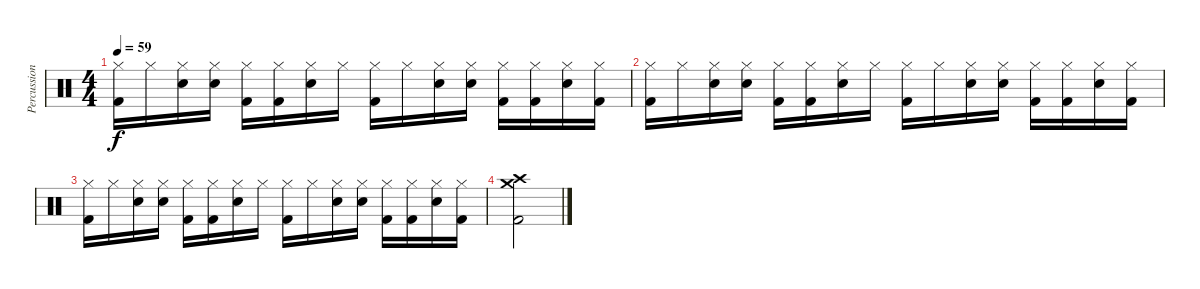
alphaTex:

\track ("Percussion 1" "Percussion") {instrument percussion}
\staff {score}
\articulation defaults
\ts (4 4)
\tempo 59
\clef neutral
\ks c
("Hi-Hat (closed)" "Kick (hit) 2").16{dy f} "Hi-Hat (closed)".16 ("Hi-Hat (closed)" "Snare (hit) 2").16 ("Hi-Hat (closed)" "Snare (hit) 2").16 ("Hi-Hat (closed)" "Kick (hit) 2").16 ("Hi-Hat (closed)" "Kick (hit) 2").16 ("Hi-Hat (closed)" "Snare (hit) 2").16 "Hi-Hat (closed)".16 ("Hi-Hat (closed)" "Kick (hit) 2").16 "Hi-Hat (closed)".16 ("Hi-Hat (closed)" "Snare (hit) 2").16 ("Hi-Hat (closed)" "Snare (hit) 2").16 ("Hi-Hat (closed)" "Kick (hit) 2").16 ("Hi-Hat (closed)" "Kick (hit) 2").16 ("Hi-Hat (closed)" "Snare (hit) 2").16 ("Hi-Hat (closed)" "Kick (hit) 2").16 |
("Hi-Hat (closed)" "Kick (hit) 2").16 "Hi-Hat (closed)".16 ("Hi-Hat (closed)" "Snare (hit) 2").16 ("Hi-Hat (closed)" "Snare (hit) 2").16 ("Hi-Hat (closed)" "Kick (hit) 2").16 ("Hi-Hat (closed)" "Kick (hit) 2").16 ("Hi-Hat (closed)" "Snare (hit) 2").16 "Hi-Hat (closed)".16 ("Hi-Hat (closed)" "Kick (hit) 2").16 "Hi-Hat (closed)".16 ("Hi-Hat (closed)" "Snare (hit) 2").16 ("Hi-Hat (closed)" "Snare (hit) 2").16 ("Hi-Hat (closed)" "Kick (hit) 2").16 ("Hi-Hat (closed)" "Kick (hit) 2").16 ("Hi-Hat (closed)" "Snare (hit) 2").16 ("Hi-Hat (closed)" "Kick (hit) 2").16 |
("Hi-Hat (closed)" "Kick (hit) 2").16 "Hi-Hat (closed)".16 ("Hi-Hat (closed)" "Snare (hit) 2").16 ("Hi-Hat (closed)" "Snare (hit) 2").16 ("Hi-Hat (closed)" "Kick (hit) 2").16 ("Hi-Hat (closed)" "Kick (hit) 2").16 ("Hi-Hat (closed)" "Snare (hit) 2").16 "Hi-Hat (closed)".16 ("Hi-Hat (closed)" "Kick (hit) 2").16 "Hi-Hat (closed)".16 ("Hi-Hat (closed)" "Snare (hit) 2").16 ("Hi-Hat (closed)" "Snare (hit) 2").16 ("Hi-Hat (closed)" "Kick (hit) 2").16 ("Hi-Hat (closed)" "Kick (hit) 2").16 ("Hi-Hat (closed)" "Snare (hit) 2").16 ("Hi-Hat (closed)" "Kick (hit) 2").16 |
("Crash medium (hit)" "Crash high (hit)" "Kick (hit) 2").2
